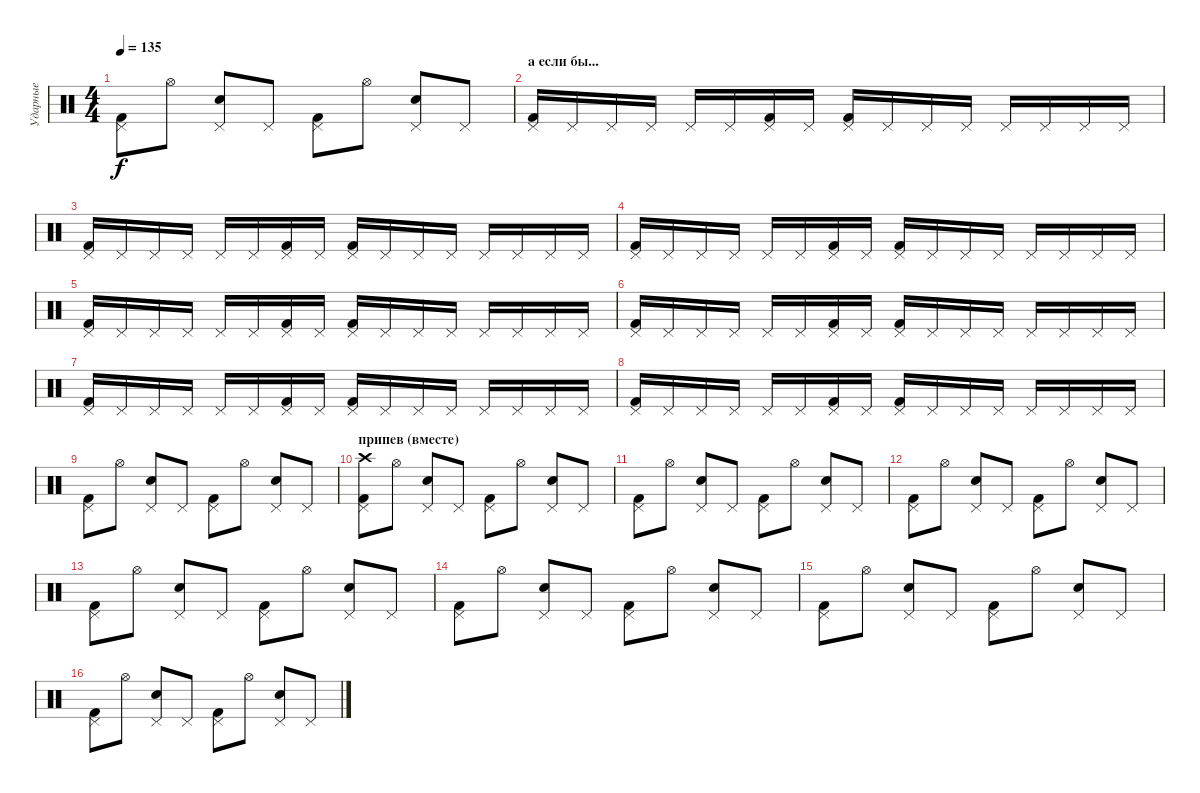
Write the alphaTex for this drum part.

\track ("Ударные" "Ударные") {instrument percussion}
\staff {score}
\articulation defaults
\ts (4 4)
\tempo 135
\clef neutral
\ks c
("Pedal Hi-Hat (hit)" "Kick (hit) 2").8{dy f} "Hi-Hat (open)".8 ("Pedal Hi-Hat (hit)" "Snare (hit) 2").8 "Pedal Hi-Hat (hit)".8 ("Pedal Hi-Hat (hit)" "Kick (hit) 2").8 "Hi-Hat (open)".8 ("Pedal Hi-Hat (hit)" "Snare (hit) 2").8 "Pedal Hi-Hat (hit)".8 |
\section ("" "а если бы...")
("Pedal Hi-Hat (hit)" "Kick (hit) 2").16 "Pedal Hi-Hat (hit)".16 "Pedal Hi-Hat (hit)".16 "Pedal Hi-Hat (hit)".16 "Pedal Hi-Hat (hit)".16 "Pedal Hi-Hat (hit)".16 ("Pedal Hi-Hat (hit)" "Kick (hit) 2").16 "Pedal Hi-Hat (hit)".16 ("Pedal Hi-Hat (hit)" "Kick (hit) 2").16 "Pedal Hi-Hat (hit)".16 "Pedal Hi-Hat (hit)".16 "Pedal Hi-Hat (hit)".16 "Pedal Hi-Hat (hit)".16 "Pedal Hi-Hat (hit)".16 "Pedal Hi-Hat (hit)".16 "Pedal Hi-Hat (hit)".16 |
("Pedal Hi-Hat (hit)" "Kick (hit) 2").16 "Pedal Hi-Hat (hit)".16 "Pedal Hi-Hat (hit)".16 "Pedal Hi-Hat (hit)".16 "Pedal Hi-Hat (hit)".16 "Pedal Hi-Hat (hit)".16 ("Pedal Hi-Hat (hit)" "Kick (hit) 2").16 "Pedal Hi-Hat (hit)".16 ("Pedal Hi-Hat (hit)" "Kick (hit) 2").16 "Pedal Hi-Hat (hit)".16 "Pedal Hi-Hat (hit)".16 "Pedal Hi-Hat (hit)".16 "Pedal Hi-Hat (hit)".16 "Pedal Hi-Hat (hit)".16 "Pedal Hi-Hat (hit)".16 "Pedal Hi-Hat (hit)".16 |
("Pedal Hi-Hat (hit)" "Kick (hit) 2").16 "Pedal Hi-Hat (hit)".16 "Pedal Hi-Hat (hit)".16 "Pedal Hi-Hat (hit)".16 "Pedal Hi-Hat (hit)".16 "Pedal Hi-Hat (hit)".16 ("Pedal Hi-Hat (hit)" "Kick (hit) 2").16 "Pedal Hi-Hat (hit)".16 ("Pedal Hi-Hat (hit)" "Kick (hit) 2").16 "Pedal Hi-Hat (hit)".16 "Pedal Hi-Hat (hit)".16 "Pedal Hi-Hat (hit)".16 "Pedal Hi-Hat (hit)".16 "Pedal Hi-Hat (hit)".16 "Pedal Hi-Hat (hit)".16 "Pedal Hi-Hat (hit)".16 |
("Pedal Hi-Hat (hit)" "Kick (hit) 2").16 "Pedal Hi-Hat (hit)".16 "Pedal Hi-Hat (hit)".16 "Pedal Hi-Hat (hit)".16 "Pedal Hi-Hat (hit)".16 "Pedal Hi-Hat (hit)".16 ("Pedal Hi-Hat (hit)" "Kick (hit) 2").16 "Pedal Hi-Hat (hit)".16 ("Pedal Hi-Hat (hit)" "Kick (hit) 2").16 "Pedal Hi-Hat (hit)".16 "Pedal Hi-Hat (hit)".16 "Pedal Hi-Hat (hit)".16 "Pedal Hi-Hat (hit)".16 "Pedal Hi-Hat (hit)".16 "Pedal Hi-Hat (hit)".16 "Pedal Hi-Hat (hit)".16 |
("Pedal Hi-Hat (hit)" "Kick (hit) 2").16 "Pedal Hi-Hat (hit)".16 "Pedal Hi-Hat (hit)".16 "Pedal Hi-Hat (hit)".16 "Pedal Hi-Hat (hit)".16 "Pedal Hi-Hat (hit)".16 ("Pedal Hi-Hat (hit)" "Kick (hit) 2").16 "Pedal Hi-Hat (hit)".16 ("Pedal Hi-Hat (hit)" "Kick (hit) 2").16 "Pedal Hi-Hat (hit)".16 "Pedal Hi-Hat (hit)".16 "Pedal Hi-Hat (hit)".16 "Pedal Hi-Hat (hit)".16 "Pedal Hi-Hat (hit)".16 "Pedal Hi-Hat (hit)".16 "Pedal Hi-Hat (hit)".16 |
("Pedal Hi-Hat (hit)" "Kick (hit) 2").16 "Pedal Hi-Hat (hit)".16 "Pedal Hi-Hat (hit)".16 "Pedal Hi-Hat (hit)".16 "Pedal Hi-Hat (hit)".16 "Pedal Hi-Hat (hit)".16 ("Pedal Hi-Hat (hit)" "Kick (hit) 2").16 "Pedal Hi-Hat (hit)".16 ("Pedal Hi-Hat (hit)" "Kick (hit) 2").16 "Pedal Hi-Hat (hit)".16 "Pedal Hi-Hat (hit)".16 "Pedal Hi-Hat (hit)".16 "Pedal Hi-Hat (hit)".16 "Pedal Hi-Hat (hit)".16 "Pedal Hi-Hat (hit)".16 "Pedal Hi-Hat (hit)".16 |
("Pedal Hi-Hat (hit)" "Kick (hit) 2").16 "Pedal Hi-Hat (hit)".16 "Pedal Hi-Hat (hit)".16 "Pedal Hi-Hat (hit)".16 "Pedal Hi-Hat (hit)".16 "Pedal Hi-Hat (hit)".16 ("Pedal Hi-Hat (hit)" "Kick (hit) 2").16 "Pedal Hi-Hat (hit)".16 ("Pedal Hi-Hat (hit)" "Kick (hit) 2").16 "Pedal Hi-Hat (hit)".16 "Pedal Hi-Hat (hit)".16 "Pedal Hi-Hat (hit)".16 "Pedal Hi-Hat (hit)".16 "Pedal Hi-Hat (hit)".16 "Pedal Hi-Hat (hit)".16 "Pedal Hi-Hat (hit)".16 |
("Pedal Hi-Hat (hit)" "Kick (hit) 2").8 "Hi-Hat (open)".8 ("Pedal Hi-Hat (hit)" "Snare (hit) 2").8 "Pedal Hi-Hat (hit)".8 ("Pedal Hi-Hat (hit)" "Kick (hit) 2").8 "Hi-Hat (open)".8 ("Pedal Hi-Hat (hit)" "Snare (hit) 2").8 "Pedal Hi-Hat (hit)".8 |
\section ("" "припев (вместе)")
("Pedal Hi-Hat (hit)" "Kick (hit) 2" "Crash high (hit)").8 "Hi-Hat (open)".8 ("Pedal Hi-Hat (hit)" "Snare (hit) 2").8 "Pedal Hi-Hat (hit)".8 ("Pedal Hi-Hat (hit)" "Kick (hit) 2").8 "Hi-Hat (open)".8 ("Pedal Hi-Hat (hit)" "Snare (hit) 2").8 "Pedal Hi-Hat (hit)".8 |
("Pedal Hi-Hat (hit)" "Kick (hit) 2").8 "Hi-Hat (open)".8 ("Pedal Hi-Hat (hit)" "Snare (hit) 2").8 "Pedal Hi-Hat (hit)".8 ("Pedal Hi-Hat (hit)" "Kick (hit) 2").8 "Hi-Hat (open)".8 ("Pedal Hi-Hat (hit)" "Snare (hit) 2").8 "Pedal Hi-Hat (hit)".8 |
("Pedal Hi-Hat (hit)" "Kick (hit) 2").8 "Hi-Hat (open)".8 ("Pedal Hi-Hat (hit)" "Snare (hit) 2").8 "Pedal Hi-Hat (hit)".8 ("Pedal Hi-Hat (hit)" "Kick (hit) 2").8 "Hi-Hat (open)".8 ("Pedal Hi-Hat (hit)" "Snare (hit) 2").8 "Pedal Hi-Hat (hit)".8 |
("Pedal Hi-Hat (hit)" "Kick (hit) 2").8 "Hi-Hat (open)".8 ("Pedal Hi-Hat (hit)" "Snare (hit) 2").8 "Pedal Hi-Hat (hit)".8 ("Pedal Hi-Hat (hit)" "Kick (hit) 2").8 "Hi-Hat (open)".8 ("Pedal Hi-Hat (hit)" "Snare (hit) 2").8 "Pedal Hi-Hat (hit)".8 |
("Pedal Hi-Hat (hit)" "Kick (hit) 2").8 "Hi-Hat (open)".8 ("Pedal Hi-Hat (hit)" "Snare (hit) 2").8 "Pedal Hi-Hat (hit)".8 ("Pedal Hi-Hat (hit)" "Kick (hit) 2").8 "Hi-Hat (open)".8 ("Pedal Hi-Hat (hit)" "Snare (hit) 2").8 "Pedal Hi-Hat (hit)".8 |
("Pedal Hi-Hat (hit)" "Kick (hit) 2").8 "Hi-Hat (open)".8 ("Pedal Hi-Hat (hit)" "Snare (hit) 2").8 "Pedal Hi-Hat (hit)".8 ("Pedal Hi-Hat (hit)" "Kick (hit) 2").8 "Hi-Hat (open)".8 ("Pedal Hi-Hat (hit)" "Snare (hit) 2").8 "Pedal Hi-Hat (hit)".8 |
("Pedal Hi-Hat (hit)" "Kick (hit) 2").8 "Hi-Hat (open)".8 ("Pedal Hi-Hat (hit)" "Snare (hit) 2").8 "Pedal Hi-Hat (hit)".8 ("Pedal Hi-Hat (hit)" "Kick (hit) 2").8 "Hi-Hat (open)".8 ("Pedal Hi-Hat (hit)" "Snare (hit) 2").8 "Pedal Hi-Hat (hit)".8
